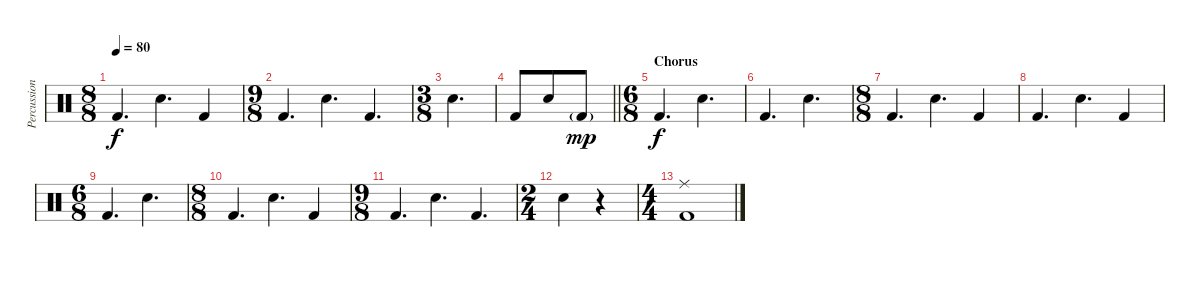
\track ("Percussion" "Percussion") {instrument percussion}
\staff {score}
\articulation defaults
\ts (8 8)
\tempo 80
\clef neutral
\ks c "Kick (hit) 2".4{d dy f} "Snare (hit) 2".4{d} "Kick (hit) 2".4
|
\ts (9 8)
"Kick (hit) 2".4{d} "Snare (hit) 2".4{d} "Kick (hit) 2".4{d} |
\ts (3 8)
"Snare (hit) 2".4{d} |
\barLineRight lightlight "Kick (hit) 2".8 "Snare (hit) 2".8 "Kick (hit) 2"{g}.8{dy mp}
|
\ts (6 8)
\section ("" "Chorus")
"Kick (hit) 2".4{d dy f} "Snare (hit) 2".4{d} |
"Kick (hit) 2".4{d} "Snare (hit) 2".4{d} |
\ts (8 8)
"Kick (hit) 2".4{d} "Snare (hit) 2".4{d} "Kick (hit) 2".4 |
"Kick (hit) 2".4{d} "Snare (hit) 2".4{d} "Kick (hit) 2".4 |
\ts (6 8)
"Kick (hit) 2".4{d} "Snare (hit) 2".4{d} |
\ts (8 8)
"Kick (hit) 2".4{d} "Snare (hit) 2".4{d} "Kick (hit) 2".4 |
\ts (9 8)
"Kick (hit) 2".4{d} "Snare (hit) 2".4{d} "Kick (hit) 2".4{d} |
\ts (2 4)
"Snare (hit) 2".4 r.4 |
\ts (4 4)
("Ride (middle)" "Kick (hit) 2").1
